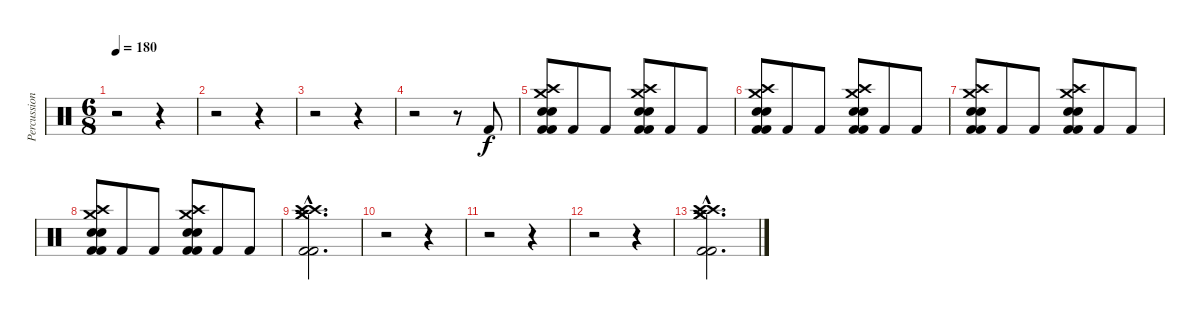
\track ("Percussion" "Percussion") {instrument percussion}
\staff {score}
\articulation defaults
\ts (6 8)
\tempo 180
\clef neutral
\ks c
r.2{dy fff} r.4 |
r.2 r.4 |
r.2 r.4 |
r.2 r.8 "Kick (hit) 2".8{dy f} |
("Crash high (hit)" "Crash medium (hit)" "Snare (hit) 2" "Snare (hit) 2" "Kick (hit) 2" "Kick (hit) 2").8 "Kick (hit) 2".8 "Kick (hit) 2".8 ("Crash high (hit)" "Crash medium (hit)" "Snare (hit) 2" "Snare (hit) 2" "Kick (hit) 2" "Kick (hit) 2").8 "Kick (hit) 2".8 "Kick (hit) 2".8 |
("Crash high (hit)" "Crash medium (hit)" "Snare (hit) 2" "Snare (hit) 2" "Kick (hit) 2" "Kick (hit) 2").8 "Kick (hit) 2".8 "Kick (hit) 2".8 ("Crash high (hit)" "Crash medium (hit)" "Snare (hit) 2" "Snare (hit) 2" "Kick (hit) 2" "Kick (hit) 2").8 "Kick (hit) 2".8 "Kick (hit) 2".8 |
("Crash high (hit)" "Crash medium (hit)" "Snare (hit) 2" "Snare (hit) 2" "Kick (hit) 2" "Kick (hit) 2").8 "Kick (hit) 2".8 "Kick (hit) 2".8 ("Crash high (hit)" "Crash medium (hit)" "Snare (hit) 2" "Snare (hit) 2" "Kick (hit) 2" "Kick (hit) 2").8 "Kick (hit) 2".8 "Kick (hit) 2".8 |
("Crash high (hit)" "Crash medium (hit)" "Snare (hit) 2" "Snare (hit) 2" "Kick (hit) 2" "Kick (hit) 2").8 "Kick (hit) 2".8 "Kick (hit) 2".8 ("Crash high (hit)" "Crash medium (hit)" "Snare (hit) 2" "Snare (hit) 2" "Kick (hit) 2" "Kick (hit) 2").8 "Kick (hit) 2".8 "Kick (hit) 2".8 |
("Crash high (hit)"{hac} "Crash high (hit)"{hac} "Crash medium (hit)"{hac} "Crash medium (hit)"{hac} "Kick (hit) 2"{hac} "Kick (hit) 2"{hac}).2{d} |
r.2 r.4 |
r.2 r.4 |
r.2 r.4 |
("Crash high (hit)"{hac} "Crash high (hit)"{hac} "Crash medium (hit)"{hac} "Crash medium (hit)"{hac} "Kick (hit) 2"{hac} "Kick (hit) 2"{hac}).2{d}
